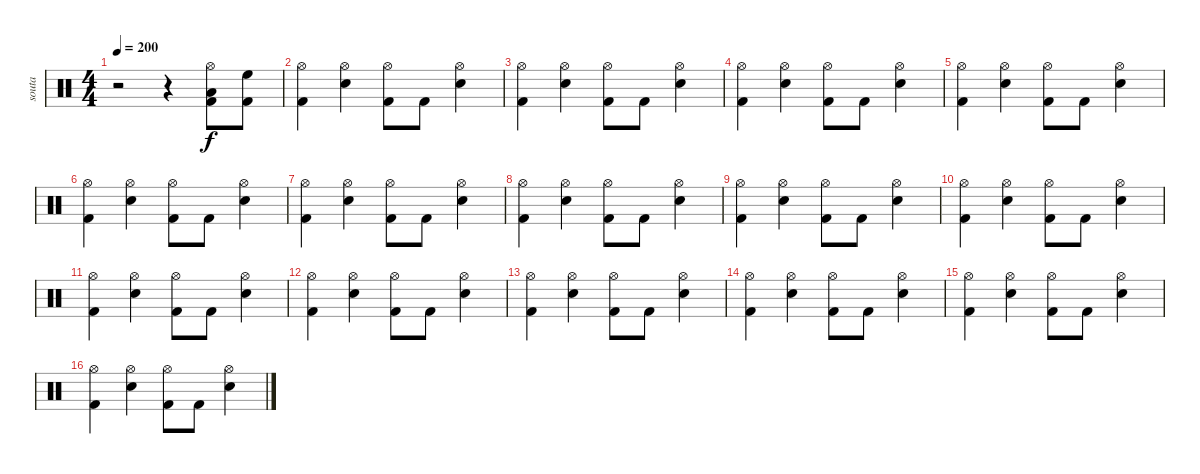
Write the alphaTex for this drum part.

\track ("souta" "souta") {instrument percussion}
\staff {score}
\articulation defaults
\ts (4 4)
\tempo 200
\clef neutral
\ks c
r.2{dy f} r.4 ("Hi-Hat (open)" "Low Floor Tom (hit)" "Kick (hit) 2").8 ("High Floor Tom (hit)" "Kick (hit) 2").8 |
("Hi-Hat (open)" "Kick (hit) 2").4 ("Hi-Hat (open)" "Snare (hit) 2").4 ("Hi-Hat (open)" "Kick (hit) 2").8 "Kick (hit) 2".8 ("Hi-Hat (open)" "Snare (hit) 2").4 |
("Hi-Hat (open)" "Kick (hit) 2").4 ("Hi-Hat (open)" "Snare (hit) 2").4 ("Hi-Hat (open)" "Kick (hit) 2").8 "Kick (hit) 2".8 ("Hi-Hat (open)" "Snare (hit) 2").4 |
("Hi-Hat (open)" "Kick (hit) 2").4 ("Hi-Hat (open)" "Snare (hit) 2").4 ("Hi-Hat (open)" "Kick (hit) 2").8 "Kick (hit) 2".8 ("Hi-Hat (open)" "Snare (hit) 2").4 |
("Hi-Hat (open)" "Kick (hit) 2").4 ("Hi-Hat (open)" "Snare (hit) 2").4 ("Hi-Hat (open)" "Kick (hit) 2").8 "Kick (hit) 2".8 ("Hi-Hat (open)" "Snare (hit) 2").4 |
("Hi-Hat (open)" "Kick (hit) 2").4 ("Hi-Hat (open)" "Snare (hit) 2").4 ("Hi-Hat (open)" "Kick (hit) 2").8 "Kick (hit) 2".8 ("Hi-Hat (open)" "Snare (hit) 2").4 |
("Hi-Hat (open)" "Kick (hit) 2").4 ("Hi-Hat (open)" "Snare (hit) 2").4 ("Hi-Hat (open)" "Kick (hit) 2").8 "Kick (hit) 2".8 ("Hi-Hat (open)" "Snare (hit) 2").4 |
("Hi-Hat (open)" "Kick (hit) 2").4 ("Hi-Hat (open)" "Snare (hit) 2").4 ("Hi-Hat (open)" "Kick (hit) 2").8 "Kick (hit) 2".8 ("Hi-Hat (open)" "Snare (hit) 2").4 |
("Hi-Hat (open)" "Kick (hit) 2").4 ("Hi-Hat (open)" "Snare (hit) 2").4 ("Hi-Hat (open)" "Kick (hit) 2").8 "Kick (hit) 2".8 ("Hi-Hat (open)" "Snare (hit) 2").4 |
("Hi-Hat (open)" "Kick (hit) 2").4 ("Hi-Hat (open)" "Snare (hit) 2").4 ("Hi-Hat (open)" "Kick (hit) 2").8 "Kick (hit) 2".8 ("Hi-Hat (open)" "Snare (hit) 2").4 |
("Hi-Hat (open)" "Kick (hit) 2").4 ("Hi-Hat (open)" "Snare (hit) 2").4 ("Hi-Hat (open)" "Kick (hit) 2").8 "Kick (hit) 2".8 ("Hi-Hat (open)" "Snare (hit) 2").4 |
("Hi-Hat (open)" "Kick (hit) 2").4 ("Hi-Hat (open)" "Snare (hit) 2").4 ("Hi-Hat (open)" "Kick (hit) 2").8 "Kick (hit) 2".8 ("Hi-Hat (open)" "Snare (hit) 2").4 |
("Hi-Hat (open)" "Kick (hit) 2").4 ("Hi-Hat (open)" "Snare (hit) 2").4 ("Hi-Hat (open)" "Kick (hit) 2").8 "Kick (hit) 2".8 ("Hi-Hat (open)" "Snare (hit) 2").4 |
("Hi-Hat (open)" "Kick (hit) 2").4 ("Hi-Hat (open)" "Snare (hit) 2").4 ("Hi-Hat (open)" "Kick (hit) 2").8 "Kick (hit) 2".8 ("Hi-Hat (open)" "Snare (hit) 2").4 |
("Hi-Hat (open)" "Kick (hit) 2").4 ("Hi-Hat (open)" "Snare (hit) 2").4 ("Hi-Hat (open)" "Kick (hit) 2").8 "Kick (hit) 2".8 ("Hi-Hat (open)" "Snare (hit) 2").4 |
("Hi-Hat (open)" "Kick (hit) 2").4 ("Hi-Hat (open)" "Snare (hit) 2").4 ("Hi-Hat (open)" "Kick (hit) 2").8 "Kick (hit) 2".8 ("Hi-Hat (open)" "Snare (hit) 2").4
